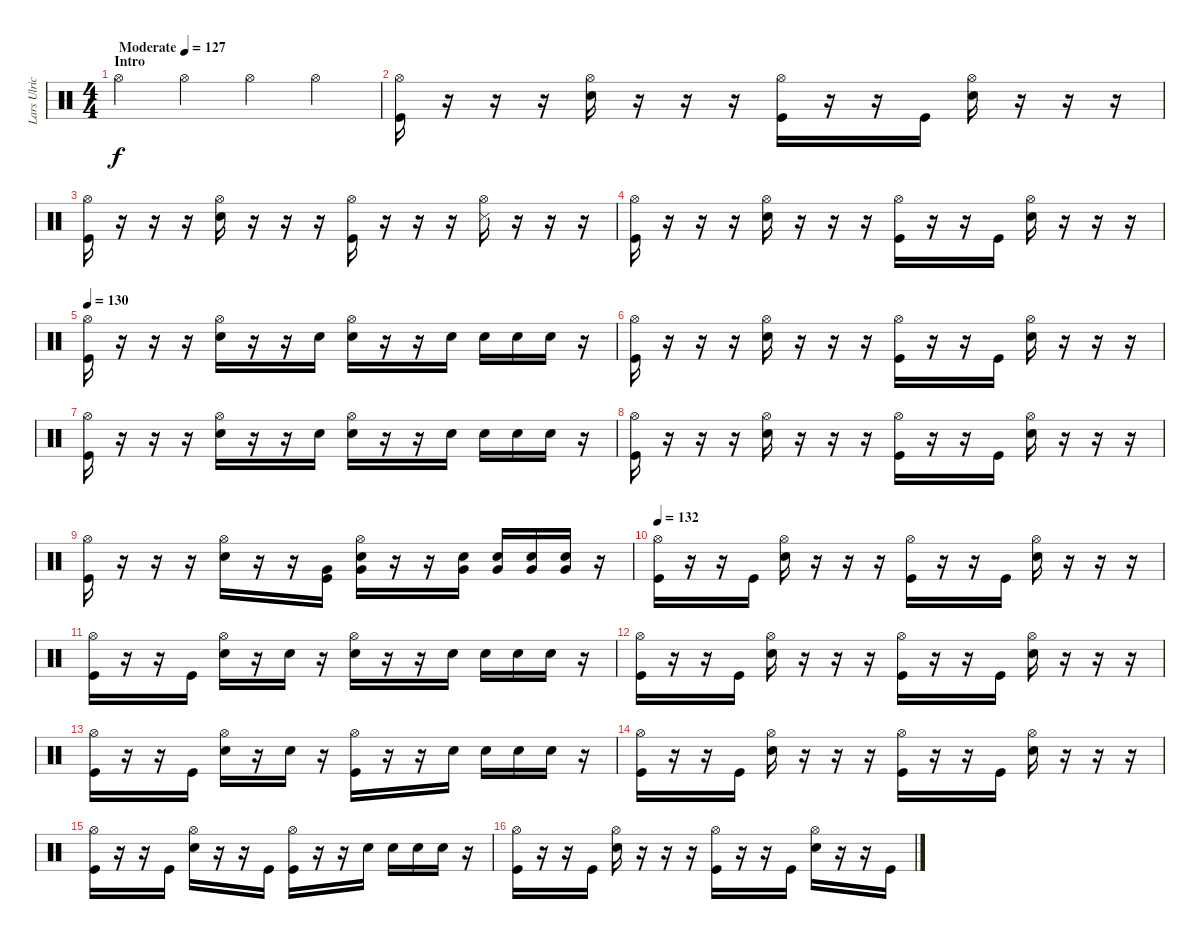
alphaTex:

\track ("Lars Ulrich" "Lars Ulric") {instrument percussion}
\staff {score}
\articulation defaults
\ts (4 4)
\section ("" "Intro")
\tempo (127 "Moderate")
\clef neutral
\ks c "Hi-Hat (open)".4{dy f} "Hi-Hat (open)".4 "Hi-Hat (open)".4 "Hi-Hat (open)".4
|
("Hi-Hat (open)" "Kick (hit)").16 r.16 r.16 r.16 ("Hi-Hat (open)" "Snare (hit) 2").16 r.16 r.16 r.16 ("Hi-Hat (open)" "Kick (hit)").16 r.16 r.16 "Kick (hit)".16 ("Hi-Hat (open)" "Snare (hit) 2").16 r.16 r.16 r.16 |
("Hi-Hat (open)" "Kick (hit)").16 r.16 r.16 r.16 ("Hi-Hat (open)" "Snare (hit) 2").16 r.16 r.16 r.16 ("Hi-Hat (open)" "Kick (hit)").16 r.16 r.16 r.16 ("Hi-Hat (open)" "Snare (side stick) 3").16 r.16 r.16 r.16 |
("Hi-Hat (open)" "Kick (hit)").16 r.16 r.16 r.16 ("Hi-Hat (open)" "Snare (hit) 2").16 r.16 r.16 r.16 ("Hi-Hat (open)" "Kick (hit)").16 r.16 r.16 "Kick (hit)".16 ("Hi-Hat (open)" "Snare (hit) 2").16 r.16 r.16 r.16 |
\tempo 130
("Hi-Hat (open)" "Kick (hit)").16 r.16 r.16 r.16 ("Hi-Hat (open)" "Snare (hit) 2").16 r.16 r.16 "Snare (hit) 2".16 ("Hi-Hat (open)" "Snare (hit) 2").16 r.16 r.16 "Snare (hit) 2".16 "Snare (hit) 2".16 "Snare (hit) 2".16 "Snare (hit) 2".16 r.16 |
("Hi-Hat (open)" "Kick (hit)").16 r.16 r.16 r.16 ("Hi-Hat (open)" "Snare (hit) 2").16 r.16 r.16 r.16 ("Hi-Hat (open)" "Kick (hit)").16 r.16 r.16 "Kick (hit)".16 ("Hi-Hat (open)" "Snare (hit) 2").16 r.16 r.16 r.16 |
("Hi-Hat (open)" "Kick (hit)").16 r.16 r.16 r.16 ("Hi-Hat (open)" "Snare (hit) 2").16 r.16 r.16 "Snare (hit) 2".16 ("Hi-Hat (open)" "Snare (hit) 2").16 r.16 r.16 "Snare (hit) 2".16 "Snare (hit) 2".16 "Snare (hit) 2".16 "Snare (hit) 2".16 r.16 |
("Hi-Hat (open)" "Kick (hit)").16 r.16 r.16 r.16 ("Hi-Hat (open)" "Snare (hit) 2").16 r.16 r.16 r.16 ("Hi-Hat (open)" "Kick (hit)").16 r.16 r.16 "Kick (hit)".16 ("Hi-Hat (open)" "Snare (hit) 2").16 r.16 r.16 r.16 |
("Hi-Hat (open)" "Kick (hit)").16 r.16 r.16 r.16 ("Hi-Hat (open)" "Snare (hit) 2").16 r.16 r.16 ("Very Low Tom (hit)" "Kick (hit)").16 ("Hi-Hat (open)" "Very Low Tom (hit)" "Snare (hit) 2").16 r.16 r.16 ("Very Low Tom (hit)" "Snare (hit) 2").16 ("Very Low Tom (hit)" "Snare (hit) 2").16 ("Very Low Tom (hit)" "Snare (hit) 2").16 ("Very Low Tom (hit)" "Snare (hit) 2").16 r.16 |
\tempo 132
("Hi-Hat (open)" "Kick (hit)").16 r.16 r.16 "Kick (hit)".16 ("Hi-Hat (open)" "Snare (hit) 2").16 r.16 r.16 r.16 ("Hi-Hat (open)" "Kick (hit)").16 r.16 r.16 "Kick (hit)".16 ("Hi-Hat (open)" "Snare (hit) 2").16 r.16 r.16 r.16 |
("Hi-Hat (open)" "Kick (hit)").16 r.16 r.16 "Kick (hit)".16 ("Hi-Hat (open)" "Snare (hit) 2").16 r.16 "Snare (hit) 2".16 r.16 ("Hi-Hat (open)" "Snare (hit) 2").16 r.16 r.16 "Snare (hit) 2".16 "Snare (hit) 2".16 "Snare (hit) 2".16 "Snare (hit) 2".16 r.16 |
("Hi-Hat (open)" "Kick (hit)").16 r.16 r.16 "Kick (hit)".16 ("Hi-Hat (open)" "Snare (hit) 2").16 r.16 r.16 r.16 ("Hi-Hat (open)" "Kick (hit)").16 r.16 r.16 "Kick (hit)".16 ("Hi-Hat (open)" "Snare (hit) 2").16 r.16 r.16 r.16 |
("Hi-Hat (open)" "Kick (hit)").16 r.16 r.16 "Kick (hit)".16 ("Hi-Hat (open)" "Snare (hit) 2").16 r.16 "Snare (hit) 2".16 r.16 ("Hi-Hat (open)" "Kick (hit)").16 r.16 r.16 "Snare (hit) 2".16 "Snare (hit) 2".16 "Snare (hit) 2".16 "Snare (hit) 2".16 r.16 |
("Hi-Hat (open)" "Kick (hit)").16 r.16 r.16 "Kick (hit)".16 ("Hi-Hat (open)" "Snare (hit) 2").16 r.16 r.16 r.16 ("Hi-Hat (open)" "Kick (hit)").16 r.16 r.16 "Kick (hit)".16 ("Hi-Hat (open)" "Snare (hit) 2").16 r.16 r.16 r.16 |
("Hi-Hat (open)" "Kick (hit)").16 r.16 r.16 "Kick (hit)".16 ("Hi-Hat (open)" "Snare (hit) 2").16 r.16 r.16 "Kick (hit)".16 ("Hi-Hat (open)" "Kick (hit)").16 r.16 r.16 "Snare (hit) 2".16 "Snare (hit) 2".16 "Snare (hit) 2".16 "Snare (hit) 2".16 r.16 |
("Hi-Hat (open)" "Kick (hit)").16 r.16 r.16 "Kick (hit)".16 ("Hi-Hat (open)" "Snare (hit) 2").16 r.16 r.16 r.16 ("Hi-Hat (open)" "Kick (hit)").16 r.16 r.16 "Kick (hit)".16 ("Hi-Hat (open)" "Snare (hit) 2").16 r.16 r.16 "Kick (hit)".16
